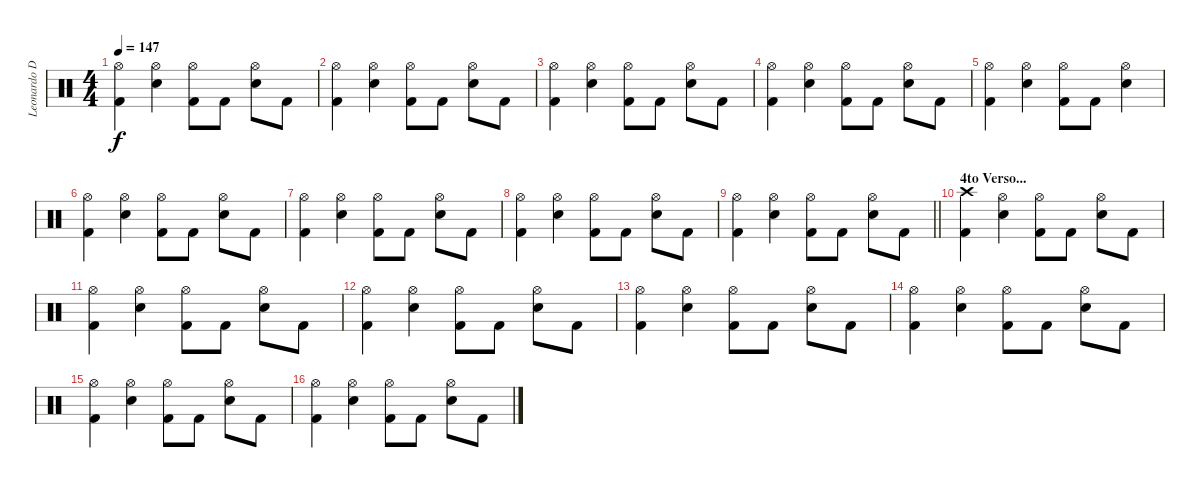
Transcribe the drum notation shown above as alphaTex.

\track ("Leonardo De Cecco" "Leonardo D") {instrument percussion}
\staff {score}
\articulation defaults
\ts (4 4)
\tempo 147
\clef neutral
\ks c
("Hi-Hat (open)" "Kick (hit) 2").4{dy f} ("Hi-Hat (open)" "Electric Snare (hit)").4 ("Hi-Hat (open)" "Kick (hit) 2").8 "Kick (hit) 2".8 ("Hi-Hat (open)" "Electric Snare (hit)").8 "Kick (hit) 2".8 |
("Hi-Hat (open)" "Kick (hit) 2").4 ("Hi-Hat (open)" "Electric Snare (hit)").4 ("Hi-Hat (open)" "Kick (hit) 2").8 "Kick (hit) 2".8 ("Hi-Hat (open)" "Electric Snare (hit)").8 "Kick (hit) 2".8 |
("Hi-Hat (open)" "Kick (hit) 2").4 ("Hi-Hat (open)" "Electric Snare (hit)").4 ("Hi-Hat (open)" "Kick (hit) 2").8 "Kick (hit) 2".8 ("Hi-Hat (open)" "Electric Snare (hit)").8 "Kick (hit) 2".8 |
("Hi-Hat (open)" "Kick (hit) 2").4 ("Hi-Hat (open)" "Electric Snare (hit)").4 ("Hi-Hat (open)" "Kick (hit) 2").8 "Kick (hit) 2".8 ("Hi-Hat (open)" "Electric Snare (hit)").8 "Kick (hit) 2".8 |
("Hi-Hat (open)" "Kick (hit) 2").4 ("Hi-Hat (open)" "Electric Snare (hit)").4 ("Hi-Hat (open)" "Kick (hit) 2").8 "Kick (hit) 2".8 ("Hi-Hat (open)" "Electric Snare (hit)").4 |
("Hi-Hat (open)" "Kick (hit) 2").4 ("Hi-Hat (open)" "Electric Snare (hit)").4 ("Hi-Hat (open)" "Kick (hit) 2").8 "Kick (hit) 2".8 ("Hi-Hat (open)" "Electric Snare (hit)").8 "Kick (hit) 2".8 |
("Hi-Hat (open)" "Kick (hit) 2").4 ("Hi-Hat (open)" "Electric Snare (hit)").4 ("Hi-Hat (open)" "Kick (hit) 2").8 "Kick (hit) 2".8 ("Hi-Hat (open)" "Electric Snare (hit)").8 "Kick (hit) 2".8 |
("Hi-Hat (open)" "Kick (hit) 2").4 ("Hi-Hat (open)" "Electric Snare (hit)").4 ("Hi-Hat (open)" "Kick (hit) 2").8 "Kick (hit) 2".8 ("Hi-Hat (open)" "Electric Snare (hit)").8 "Kick (hit) 2".8 |
\barLineRight lightlight
("Hi-Hat (open)" "Kick (hit) 2").4 ("Hi-Hat (open)" "Electric Snare (hit)").4 ("Hi-Hat (open)" "Kick (hit) 2").8 "Kick (hit) 2".8 ("Hi-Hat (open)" "Electric Snare (hit)").8 "Kick (hit) 2".8 |
\section ("" "4to Verso...")
("Crash high (hit)" "Kick (hit) 2").4 ("Hi-Hat (open)" "Electric Snare (hit)").4 ("Hi-Hat (open)" "Kick (hit) 2").8 "Kick (hit) 2".8 ("Hi-Hat (open)" "Electric Snare (hit)").8 "Kick (hit) 2".8 |
("Hi-Hat (open)" "Kick (hit) 2").4 ("Hi-Hat (open)" "Electric Snare (hit)").4 ("Hi-Hat (open)" "Kick (hit) 2").8 "Kick (hit) 2".8 ("Hi-Hat (open)" "Electric Snare (hit)").8 "Kick (hit) 2".8 |
("Hi-Hat (open)" "Kick (hit) 2").4 ("Hi-Hat (open)" "Electric Snare (hit)").4 ("Hi-Hat (open)" "Kick (hit) 2").8 "Kick (hit) 2".8 ("Hi-Hat (open)" "Electric Snare (hit)").8 "Kick (hit) 2".8 |
("Hi-Hat (open)" "Kick (hit) 2").4 ("Hi-Hat (open)" "Electric Snare (hit)").4 ("Hi-Hat (open)" "Kick (hit) 2").8 "Kick (hit) 2".8 ("Hi-Hat (open)" "Electric Snare (hit)").8 "Kick (hit) 2".8 |
("Hi-Hat (open)" "Kick (hit) 2").4 ("Hi-Hat (open)" "Electric Snare (hit)").4 ("Hi-Hat (open)" "Kick (hit) 2").8 "Kick (hit) 2".8 ("Hi-Hat (open)" "Electric Snare (hit)").8 "Kick (hit) 2".8 |
("Hi-Hat (open)" "Kick (hit) 2").4 ("Hi-Hat (open)" "Electric Snare (hit)").4 ("Hi-Hat (open)" "Kick (hit) 2").8 "Kick (hit) 2".8 ("Hi-Hat (open)" "Electric Snare (hit)").8 "Kick (hit) 2".8 |
("Hi-Hat (open)" "Kick (hit) 2").4 ("Hi-Hat (open)" "Electric Snare (hit)").4 ("Hi-Hat (open)" "Kick (hit) 2").8 "Kick (hit) 2".8 ("Hi-Hat (open)" "Electric Snare (hit)").8 "Kick (hit) 2".8
